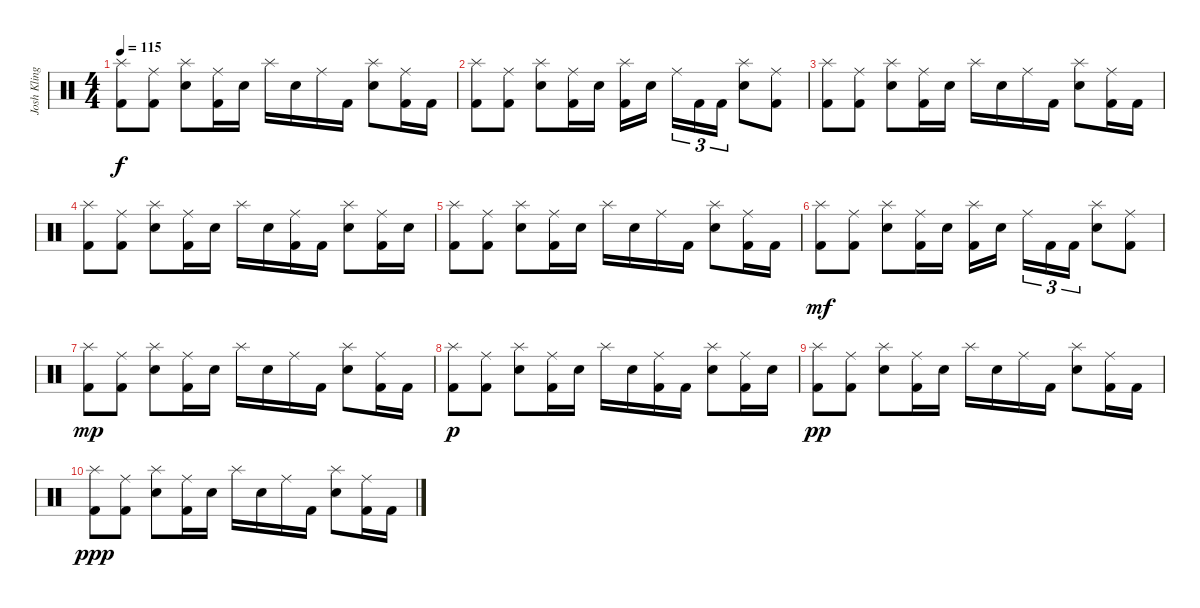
\track ("Josh Klinghoffer " "Josh Kling") {instrument percussion}
\staff {score}
\articulation defaults
\ts (4 4)
\tempo 115
\clef neutral
\ks c
("Splash (hit)" "Kick (hit) 2").8{dy f} ("Ride (middle)" "Kick (hit) 2").8 ("Splash (hit)" "Electric Snare (hit)").8 ("Ride (middle)" "Kick (hit) 2").16 "Electric Snare (hit)".16 "Splash (hit)".16 "Electric Snare (hit)".16 "Ride (middle)".16 "Kick (hit) 2".16 ("Splash (hit)" "Electric Snare (hit)").8 ("Ride (middle)" "Kick (hit) 2").16 "Kick (hit) 2".16 |
("Splash (hit)" "Kick (hit) 2").8 ("Ride (middle)" "Kick (hit) 2").8 ("Splash (hit)" "Electric Snare (hit)").8 ("Ride (middle)" "Kick (hit) 2").16 "Electric Snare (hit)".16 ("Splash (hit)" "Kick (hit) 2").16 "Electric Snare (hit)".16{beam splitsecondary} "Ride (middle)".16{tu (3 2)} "Kick (hit) 2".16{tu (3 2)} "Kick (hit) 2".16{tu (3 2)} ("Splash (hit)" "Electric Snare (hit)").8 ("Ride (middle)" "Kick (hit) 2").8 |
("Splash (hit)" "Kick (hit) 2").8 ("Ride (middle)" "Kick (hit) 2").8 ("Splash (hit)" "Electric Snare (hit)").8 ("Ride (middle)" "Kick (hit) 2").16 "Electric Snare (hit)".16 "Splash (hit)".16 "Electric Snare (hit)".16 "Ride (middle)".16 "Kick (hit) 2".16 ("Splash (hit)" "Electric Snare (hit)").8 ("Ride (middle)" "Kick (hit) 2").16 "Kick (hit) 2".16 |
("Splash (hit)" "Kick (hit) 2").8 ("Ride (middle)" "Kick (hit) 2").8 ("Splash (hit)" "Electric Snare (hit)").8 ("Ride (middle)" "Kick (hit) 2").16 "Electric Snare (hit)".16 "Splash (hit)".16 "Electric Snare (hit)".16 ("Ride (middle)" "Kick (hit) 2").16 "Kick (hit) 2".16 ("Splash (hit)" "Electric Snare (hit)").8 ("Ride (middle)" "Kick (hit) 2").16 "Electric Snare (hit)".16 |
("Splash (hit)" "Kick (hit) 2").8 ("Ride (middle)" "Kick (hit) 2").8 ("Splash (hit)" "Electric Snare (hit)").8 ("Ride (middle)" "Kick (hit) 2").16 "Electric Snare (hit)".16 "Splash (hit)".16 "Electric Snare (hit)".16 "Ride (middle)".16 "Kick (hit) 2".16 ("Splash (hit)" "Electric Snare (hit)").8 ("Ride (middle)" "Kick (hit) 2").16 "Kick (hit) 2".16 |
("Splash (hit)" "Kick (hit) 2").8{dy mf} ("Ride (middle)" "Kick (hit) 2").8 ("Splash (hit)" "Electric Snare (hit)").8 ("Ride (middle)" "Kick (hit) 2").16 "Electric Snare (hit)".16 ("Splash (hit)" "Kick (hit) 2").16 "Electric Snare (hit)".16{beam splitsecondary} "Ride (middle)".16{tu (3 2)} "Kick (hit) 2".16{tu (3 2)} "Kick (hit) 2".16{tu (3 2)} ("Splash (hit)" "Electric Snare (hit)").8 ("Ride (middle)" "Kick (hit) 2").8 |
("Splash (hit)" "Kick (hit) 2").8{dy mp} ("Ride (middle)" "Kick (hit) 2").8 ("Splash (hit)" "Electric Snare (hit)").8 ("Ride (middle)" "Kick (hit) 2").16 "Electric Snare (hit)".16 "Splash (hit)".16 "Electric Snare (hit)".16 "Ride (middle)".16 "Kick (hit) 2".16 ("Splash (hit)" "Electric Snare (hit)").8 ("Ride (middle)" "Kick (hit) 2").16 "Kick (hit) 2".16 |
("Splash (hit)" "Kick (hit) 2").8{dy p} ("Ride (middle)" "Kick (hit) 2").8 ("Splash (hit)" "Electric Snare (hit)").8 ("Ride (middle)" "Kick (hit) 2").16 "Electric Snare (hit)".16 "Splash (hit)".16 "Electric Snare (hit)".16 ("Ride (middle)" "Kick (hit) 2").16 "Kick (hit) 2".16 ("Splash (hit)" "Electric Snare (hit)").8 ("Ride (middle)" "Kick (hit) 2").16 "Electric Snare (hit)".16 |
("Splash (hit)" "Kick (hit) 2").8{dy pp} ("Ride (middle)" "Kick (hit) 2").8 ("Splash (hit)" "Electric Snare (hit)").8 ("Ride (middle)" "Kick (hit) 2").16 "Electric Snare (hit)".16 "Splash (hit)".16 "Electric Snare (hit)".16 "Ride (middle)".16 "Kick (hit) 2".16 ("Splash (hit)" "Electric Snare (hit)").8 ("Ride (middle)" "Kick (hit) 2").16 "Kick (hit) 2".16 |
("Splash (hit)" "Kick (hit) 2").8{dy ppp} ("Ride (middle)" "Kick (hit) 2").8 ("Splash (hit)" "Electric Snare (hit)").8 ("Ride (middle)" "Kick (hit) 2").16 "Electric Snare (hit)".16 "Splash (hit)".16 "Electric Snare (hit)".16 "Ride (middle)".16 "Kick (hit) 2".16 ("Splash (hit)" "Electric Snare (hit)").8 ("Ride (middle)" "Kick (hit) 2").16 "Kick (hit) 2".16
